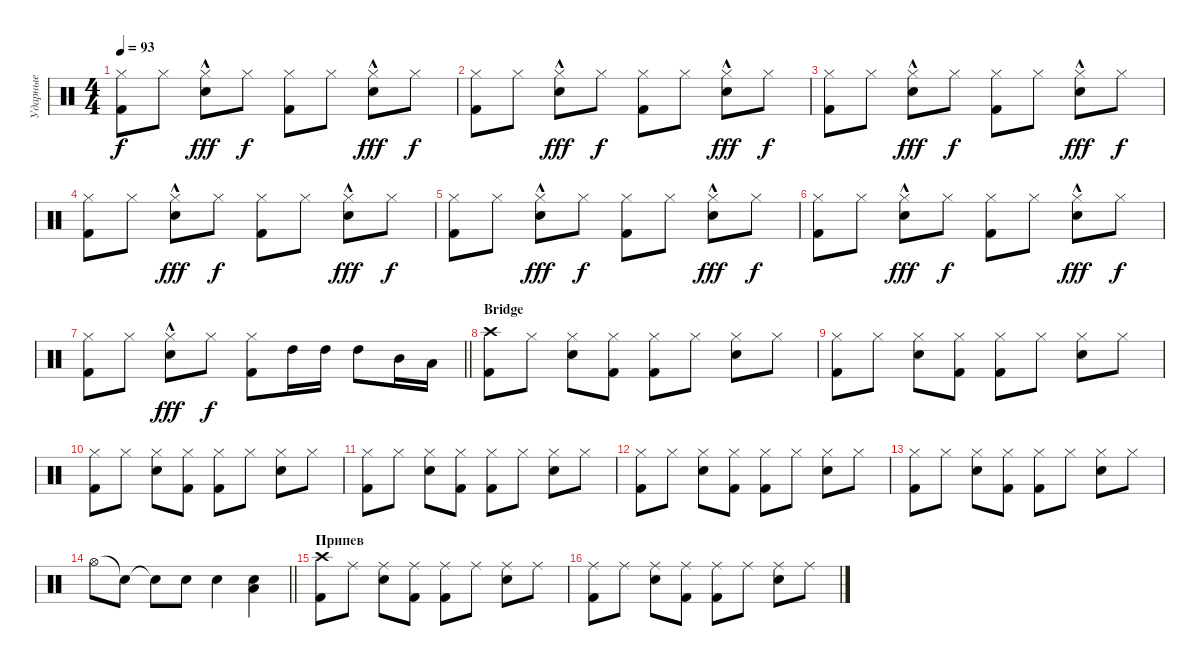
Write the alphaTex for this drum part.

\track ("Ударные" "Ударные") {instrument percussion}
\staff
\articulation defaults
\ts (4 4)
\tempo 93
\clef neutral
\ks c
("Hi-Hat (closed)" "Kick (hit) 2").8{dy f} "Hi-Hat (closed)".8 ("Hi-Hat (closed)"{hac} "Electric Snare (hit)").8{dy fff} "Hi-Hat (closed)".8{dy f} ("Hi-Hat (closed)" "Kick (hit) 2").8 "Hi-Hat (closed)".8 ("Hi-Hat (closed)"{hac} "Electric Snare (hit)").8{dy fff} "Hi-Hat (closed)".8{dy f} |
("Hi-Hat (closed)" "Kick (hit) 2").8 "Hi-Hat (closed)".8 ("Hi-Hat (closed)"{hac} "Electric Snare (hit)").8{dy fff} "Hi-Hat (closed)".8{dy f} ("Hi-Hat (closed)" "Kick (hit) 2").8 "Hi-Hat (closed)".8 ("Hi-Hat (closed)"{hac} "Electric Snare (hit)").8{dy fff} "Hi-Hat (closed)".8{dy f} |
("Hi-Hat (closed)" "Kick (hit) 2").8 "Hi-Hat (closed)".8 ("Hi-Hat (closed)"{hac} "Electric Snare (hit)").8{dy fff} "Hi-Hat (closed)".8{dy f} ("Hi-Hat (closed)" "Kick (hit) 2").8 "Hi-Hat (closed)".8 ("Hi-Hat (closed)"{hac} "Electric Snare (hit)").8{dy fff} "Hi-Hat (closed)".8{dy f} |
("Hi-Hat (closed)" "Kick (hit) 2").8 "Hi-Hat (closed)".8 ("Hi-Hat (closed)"{hac} "Electric Snare (hit)").8{dy fff} "Hi-Hat (closed)".8{dy f} ("Hi-Hat (closed)" "Kick (hit) 2").8 "Hi-Hat (closed)".8 ("Hi-Hat (closed)"{hac} "Electric Snare (hit)").8{dy fff} "Hi-Hat (closed)".8{dy f} |
("Hi-Hat (closed)" "Kick (hit) 2").8 "Hi-Hat (closed)".8 ("Hi-Hat (closed)"{hac} "Electric Snare (hit)").8{dy fff} "Hi-Hat (closed)".8{dy f} ("Hi-Hat (closed)" "Kick (hit) 2").8 "Hi-Hat (closed)".8 ("Hi-Hat (closed)"{hac} "Electric Snare (hit)").8{dy fff} "Hi-Hat (closed)".8{dy f} |
("Hi-Hat (closed)" "Kick (hit) 2").8 "Hi-Hat (closed)".8 ("Hi-Hat (closed)"{hac} "Electric Snare (hit)").8{dy fff} "Hi-Hat (closed)".8{dy f} ("Hi-Hat (closed)" "Kick (hit) 2").8 "Hi-Hat (closed)".8 ("Hi-Hat (closed)"{hac} "Electric Snare (hit)").8{dy fff} "Hi-Hat (closed)".8{dy f} |
\barLineRight lightlight
("Hi-Hat (closed)" "Kick (hit) 2").8 "Hi-Hat (closed)".8 ("Hi-Hat (closed)"{hac} "Electric Snare (hit)").8{dy fff} "Hi-Hat (closed)".8{dy f} ("Hi-Hat (closed)" "Kick (hit) 2").8 "High Tom (hit)".16 "High Tom (hit)".16 "High Tom (hit)".8 "Mid Tom (hit)".16 "Low Tom (hit)".16 |
\section ("" "Bridge")
("Crash high (hit)" "Kick (hit) 2").8 "Hi-Hat (closed)".8 ("Hi-Hat (closed)" "Electric Snare (hit)").8 ("Hi-Hat (closed)" "Kick (hit) 2").8 ("Hi-Hat (closed)" "Kick (hit) 2").8 "Hi-Hat (closed)".8 ("Hi-Hat (closed)" "Electric Snare (hit)").8 "Hi-Hat (closed)".8 |
("Hi-Hat (closed)" "Kick (hit) 2").8 "Hi-Hat (closed)".8 ("Hi-Hat (closed)" "Electric Snare (hit)").8 ("Hi-Hat (closed)" "Kick (hit) 2").8 ("Hi-Hat (closed)" "Kick (hit) 2").8 "Hi-Hat (closed)".8 ("Hi-Hat (closed)" "Electric Snare (hit)").8 "Hi-Hat (closed)".8 |
("Hi-Hat (closed)" "Kick (hit) 2").8 "Hi-Hat (closed)".8 ("Hi-Hat (closed)" "Electric Snare (hit)").8 ("Hi-Hat (closed)" "Kick (hit) 2").8 ("Hi-Hat (closed)" "Kick (hit) 2").8 "Hi-Hat (closed)".8 ("Hi-Hat (closed)" "Electric Snare (hit)").8 "Hi-Hat (closed)".8 |
("Hi-Hat (closed)" "Kick (hit) 2").8 "Hi-Hat (closed)".8 ("Hi-Hat (closed)" "Electric Snare (hit)").8 ("Hi-Hat (closed)" "Kick (hit) 2").8 ("Hi-Hat (closed)" "Kick (hit) 2").8 "Hi-Hat (closed)".8 ("Hi-Hat (closed)" "Electric Snare (hit)").8 "Hi-Hat (closed)".8 |
("Hi-Hat (closed)" "Kick (hit) 2").8 "Hi-Hat (closed)".8 ("Hi-Hat (closed)" "Electric Snare (hit)").8 ("Hi-Hat (closed)" "Kick (hit) 2").8 ("Hi-Hat (closed)" "Kick (hit) 2").8 "Hi-Hat (closed)".8 ("Hi-Hat (closed)" "Electric Snare (hit)").8 "Hi-Hat (closed)".8 |
("Hi-Hat (closed)" "Kick (hit) 2").8 "Hi-Hat (closed)".8 ("Hi-Hat (closed)" "Electric Snare (hit)").8 ("Hi-Hat (closed)" "Kick (hit) 2").8 ("Hi-Hat (closed)" "Kick (hit) 2").8 "Hi-Hat (closed)".8 ("Hi-Hat (closed)" "Electric Snare (hit)").8 "Hi-Hat (closed)".8 |
\barLineRight lightlight "Hi-Hat (open)".8 "Snare (hit)"{t}.8 "Snare (hit)"{t}.8 "Electric Snare (hit)".8 "Electric Snare (hit)".4
("Electric Snare (hit)" "Low Tom (hit)").4 |
\section ("" "Припев")
("Crash high (hit)" "Kick (hit) 2").8 "Ride (middle)".8 ("Ride (middle)" "Electric Snare (hit)").8 ("Ride (middle)" "Kick (hit) 2").8 ("Ride (middle)" "Kick (hit) 2").8 "Ride (middle)".8 ("Ride (middle)" "Electric Snare (hit)").8 "Ride (middle)".8 |
("Ride (middle)" "Kick (hit) 2").8 "Ride (middle)".8 ("Ride (middle)" "Electric Snare (hit)").8 ("Ride (middle)" "Kick (hit) 2").8 ("Ride (middle)" "Kick (hit) 2").8 "Ride (middle)".8 ("Ride (middle)" "Electric Snare (hit)").8 "Ride (middle)".8
